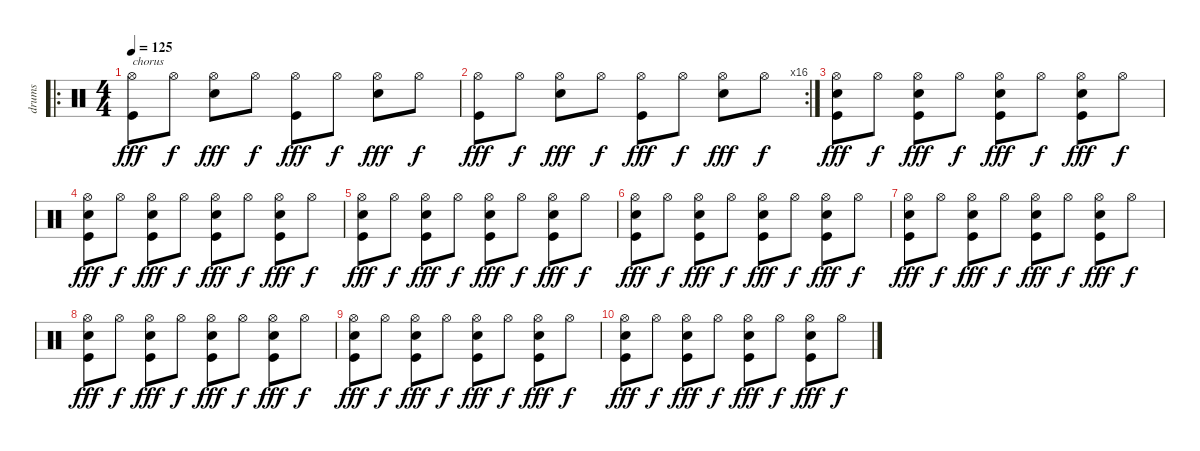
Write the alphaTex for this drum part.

\track ("drums" "drums") {instrument percussion}
\staff {score}
\articulation defaults
\ro
\ts (4 4)
\tempo 125
\clef neutral
\ks c
("Hi-Hat (open)" "Kick (hit)").8{txt "chorus" dy fff} "Hi-Hat (open)".8{dy f} ("Hi-Hat (open)" "Snare (hit) 2").8{dy fff} "Hi-Hat (open)".8{dy f} ("Hi-Hat (open)" "Kick (hit)").8{dy fff} "Hi-Hat (open)".8{dy f} ("Hi-Hat (open)" "Snare (hit) 2").8{dy fff} "Hi-Hat (open)".8{dy f} |
\rc 16
("Hi-Hat (open)" "Kick (hit)").8{dy fff} "Hi-Hat (open)".8{dy f} ("Hi-Hat (open)" "Snare (hit) 2").8{dy fff} "Hi-Hat (open)".8{dy f} ("Hi-Hat (open)" "Kick (hit)").8{dy fff} "Hi-Hat (open)".8{dy f} ("Hi-Hat (open)" "Snare (hit) 2").8{dy fff} "Hi-Hat (open)".8{dy f} |
("Hi-Hat (open)" "Snare (hit) 2" "Kick (hit)").8{dy fff} "Hi-Hat (open)".8{dy f} ("Hi-Hat (open)" "Snare (hit) 2" "Kick (hit)").8{dy fff} "Hi-Hat (open)".8{dy f} ("Hi-Hat (open)" "Snare (hit) 2" "Kick (hit)").8{dy fff} "Hi-Hat (open)".8{dy f} ("Hi-Hat (open)" "Snare (hit) 2" "Kick (hit)").8{dy fff} "Hi-Hat (open)".8{dy f} |
("Hi-Hat (open)" "Snare (hit) 2" "Kick (hit)").8{dy fff} "Hi-Hat (open)".8{dy f} ("Hi-Hat (open)" "Snare (hit) 2" "Kick (hit)").8{dy fff} "Hi-Hat (open)".8{dy f} ("Hi-Hat (open)" "Snare (hit) 2" "Kick (hit)").8{dy fff} "Hi-Hat (open)".8{dy f} ("Hi-Hat (open)" "Snare (hit) 2" "Kick (hit)").8{dy fff} "Hi-Hat (open)".8{dy f} |
("Hi-Hat (open)" "Snare (hit) 2" "Kick (hit)").8{dy fff} "Hi-Hat (open)".8{dy f} ("Hi-Hat (open)" "Snare (hit) 2" "Kick (hit)").8{dy fff} "Hi-Hat (open)".8{dy f} ("Hi-Hat (open)" "Snare (hit) 2" "Kick (hit)").8{dy fff} "Hi-Hat (open)".8{dy f} ("Hi-Hat (open)" "Snare (hit) 2" "Kick (hit)").8{dy fff} "Hi-Hat (open)".8{dy f} |
("Hi-Hat (open)" "Snare (hit) 2" "Kick (hit)").8{dy fff} "Hi-Hat (open)".8{dy f} ("Hi-Hat (open)" "Snare (hit) 2" "Kick (hit)").8{dy fff} "Hi-Hat (open)".8{dy f} ("Hi-Hat (open)" "Snare (hit) 2" "Kick (hit)").8{dy fff} "Hi-Hat (open)".8{dy f} ("Hi-Hat (open)" "Snare (hit) 2" "Kick (hit)").8{dy fff} "Hi-Hat (open)".8{dy f} |
("Hi-Hat (open)" "Snare (hit) 2" "Kick (hit)").8{dy fff} "Hi-Hat (open)".8{dy f} ("Hi-Hat (open)" "Snare (hit) 2" "Kick (hit)").8{dy fff} "Hi-Hat (open)".8{dy f} ("Hi-Hat (open)" "Snare (hit) 2" "Kick (hit)").8{dy fff} "Hi-Hat (open)".8{dy f} ("Hi-Hat (open)" "Snare (hit) 2" "Kick (hit)").8{dy fff} "Hi-Hat (open)".8{dy f} |
("Hi-Hat (open)" "Snare (hit) 2" "Kick (hit)").8{dy fff} "Hi-Hat (open)".8{dy f} ("Hi-Hat (open)" "Snare (hit) 2" "Kick (hit)").8{dy fff} "Hi-Hat (open)".8{dy f} ("Hi-Hat (open)" "Snare (hit) 2" "Kick (hit)").8{dy fff} "Hi-Hat (open)".8{dy f} ("Hi-Hat (open)" "Snare (hit) 2" "Kick (hit)").8{dy fff} "Hi-Hat (open)".8{dy f} |
("Hi-Hat (open)" "Snare (hit) 2" "Kick (hit)").8{dy fff} "Hi-Hat (open)".8{dy f} ("Hi-Hat (open)" "Snare (hit) 2" "Kick (hit)").8{dy fff} "Hi-Hat (open)".8{dy f} ("Hi-Hat (open)" "Snare (hit) 2" "Kick (hit)").8{dy fff} "Hi-Hat (open)".8{dy f} ("Hi-Hat (open)" "Snare (hit) 2" "Kick (hit)").8{dy fff} "Hi-Hat (open)".8{dy f} |
("Hi-Hat (open)" "Snare (hit) 2" "Kick (hit)").8{dy fff} "Hi-Hat (open)".8{dy f} ("Hi-Hat (open)" "Snare (hit) 2" "Kick (hit)").8{dy fff} "Hi-Hat (open)".8{dy f} ("Hi-Hat (open)" "Snare (hit) 2" "Kick (hit)").8{dy fff} "Hi-Hat (open)".8{dy f} ("Hi-Hat (open)" "Snare (hit) 2" "Kick (hit)").8{dy fff} "Hi-Hat (open)".8{dy f}
